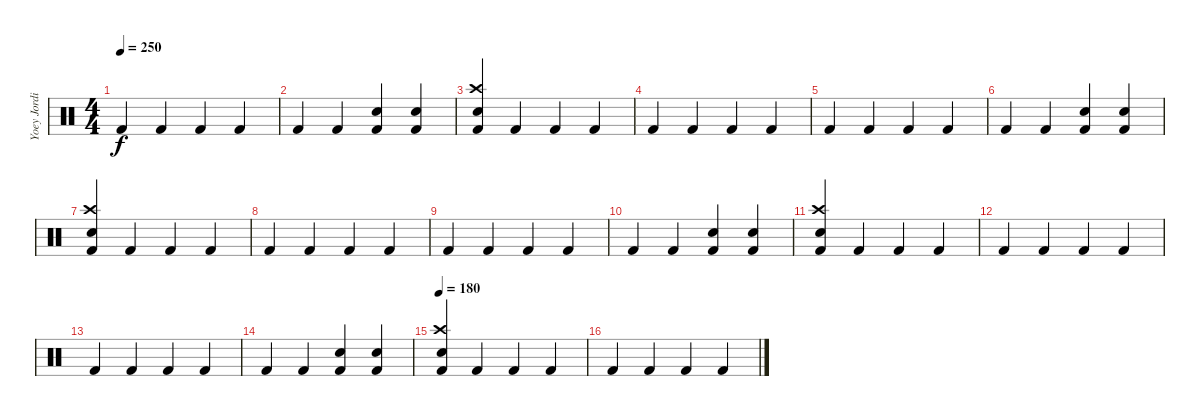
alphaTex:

\track ("Yoey Jordison" "Yoey Jordi") {instrument percussion}
\staff {score}
\articulation defaults
\ts (4 4)
\tempo 250
\clef neutral
\ks c "Kick (hit) 2".4{dy f} "Kick (hit) 2".4 "Kick (hit) 2".4 "Kick (hit) 2".4
|
"Kick (hit) 2".4 "Kick (hit) 2".4 ("Kick (hit) 2" "Electric Snare (hit)").4 ("Kick (hit) 2" "Electric Snare (hit)").4 |
("Crash high (hit)" "Kick (hit) 2" "Snare (hit) 2").4 "Kick (hit) 2".4 "Kick (hit) 2".4 "Kick (hit) 2".4 |
"Kick (hit) 2".4 "Kick (hit) 2".4 "Kick (hit) 2".4 "Kick (hit) 2".4 |
"Kick (hit) 2".4 "Kick (hit) 2".4 "Kick (hit) 2".4 "Kick (hit) 2".4 |
"Kick (hit) 2".4 "Kick (hit) 2".4 ("Kick (hit) 2" "Electric Snare (hit)").4 ("Kick (hit) 2" "Electric Snare (hit)").4 |
("Crash high (hit)" "Kick (hit) 2" "Snare (hit) 2").4 "Kick (hit) 2".4 "Kick (hit) 2".4 "Kick (hit) 2".4 |
"Kick (hit) 2".4 "Kick (hit) 2".4 "Kick (hit) 2".4 "Kick (hit) 2".4 |
"Kick (hit) 2".4 "Kick (hit) 2".4 "Kick (hit) 2".4 "Kick (hit) 2".4 |
"Kick (hit) 2".4 "Kick (hit) 2".4 ("Kick (hit) 2" "Electric Snare (hit)").4 ("Kick (hit) 2" "Electric Snare (hit)").4 |
("Crash high (hit)" "Kick (hit) 2" "Snare (hit) 2").4 "Kick (hit) 2".4 "Kick (hit) 2".4 "Kick (hit) 2".4 |
"Kick (hit) 2".4 "Kick (hit) 2".4 "Kick (hit) 2".4 "Kick (hit) 2".4 |
"Kick (hit) 2".4 "Kick (hit) 2".4 "Kick (hit) 2".4 "Kick (hit) 2".4 |
"Kick (hit) 2".4 "Kick (hit) 2".4 ("Kick (hit) 2" "Electric Snare (hit)").4 ("Kick (hit) 2" "Electric Snare (hit)").4 |
\tempo 180
("Crash high (hit)" "Kick (hit) 2" "Snare (hit) 2").4 "Kick (hit) 2".4 "Kick (hit) 2".4 "Kick (hit) 2".4 |
"Kick (hit) 2".4 "Kick (hit) 2".4 "Kick (hit) 2".4 "Kick (hit) 2".4
